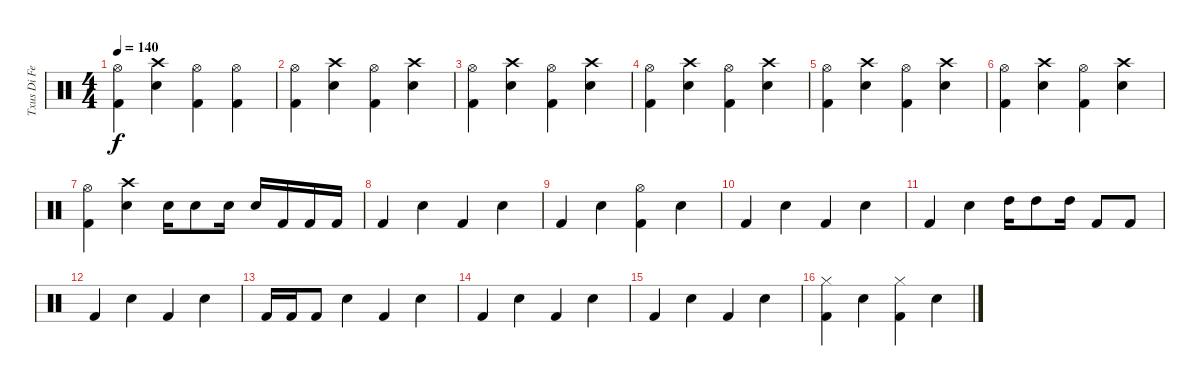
\track ("Txus Di Fellatio" "Txus Di Fe") {instrument percussion}
\staff {score}
\articulation defaults
\ts (4 4)
\tempo 140
\clef neutral
\ks c
("Hi-Hat (open)" "Kick (hit) 2").4{dy f} ("Crash high (hit)" "Electric Snare (hit)").4 ("Hi-Hat (open)" "Kick (hit) 2").4 ("Hi-Hat (open)" "Kick (hit) 2").4 |
("Hi-Hat (open)" "Kick (hit) 2").4 ("Crash high (hit)" "Electric Snare (hit)").4 ("Hi-Hat (open)" "Kick (hit) 2").4 ("Crash high (hit)" "Electric Snare (hit)").4 |
("Hi-Hat (open)" "Kick (hit) 2").4 ("Crash high (hit)" "Electric Snare (hit)").4 ("Hi-Hat (open)" "Kick (hit) 2").4 ("Crash high (hit)" "Electric Snare (hit)").4 |
("Hi-Hat (open)" "Kick (hit) 2").4 ("Crash high (hit)" "Electric Snare (hit)").4 ("Hi-Hat (open)" "Kick (hit) 2").4 ("Crash high (hit)" "Electric Snare (hit)").4 |
("Hi-Hat (open)" "Kick (hit) 2").4 ("Crash high (hit)" "Electric Snare (hit)").4 ("Hi-Hat (open)" "Kick (hit) 2").4 ("Crash high (hit)" "Electric Snare (hit)").4 |
("Hi-Hat (open)" "Kick (hit) 2").4 ("Crash high (hit)" "Electric Snare (hit)").4 ("Hi-Hat (open)" "Kick (hit) 2").4 ("Crash high (hit)" "Electric Snare (hit)").4 |
("Hi-Hat (open)" "Kick (hit) 2").4 ("Crash high (hit)" "Electric Snare (hit)").4 "Electric Snare (hit)".16 "Electric Snare (hit)".8 "Electric Snare (hit)".16 "Electric Snare (hit)".16 "Kick (hit) 2".16 "Kick (hit) 2".16 "Kick (hit) 2".16 |
"Kick (hit) 2".4 "Electric Snare (hit)".4 "Kick (hit) 2".4 "Electric Snare (hit)".4 |
"Kick (hit) 2".4 "Electric Snare (hit)".4 ("Hi-Hat (open)" "Kick (hit) 2").4 "Electric Snare (hit)".4 |
"Kick (hit) 2".4 "Electric Snare (hit)".4 "Kick (hit) 2".4 "Electric Snare (hit)".4 |
"Kick (hit) 2".4 "Electric Snare (hit)".4 "High Tom (hit)".16 "High Tom (hit)".8 "High Tom (hit)".16 "Kick (hit) 2".8 "Kick (hit) 2".8 |
"Kick (hit) 2".4 "Electric Snare (hit)".4 "Kick (hit) 2".4 "Electric Snare (hit)".4 |
"Kick (hit) 2".16 "Kick (hit) 2".16 "Kick (hit) 2".8 "Electric Snare (hit)".4 "Kick (hit) 2".4 "Electric Snare (hit)".4 |
"Kick (hit) 2".4 "Electric Snare (hit)".4 "Kick (hit) 2".4 "Electric Snare (hit)".4 |
"Kick (hit) 2".4 "Electric Snare (hit)".4 "Kick (hit) 2".4 "Electric Snare (hit)".4 |
("Hi-Hat (closed)" "Kick (hit) 2").4 "Electric Snare (hit)".4 ("Hi-Hat (closed)" "Kick (hit) 2").4 "Electric Snare (hit)".4
